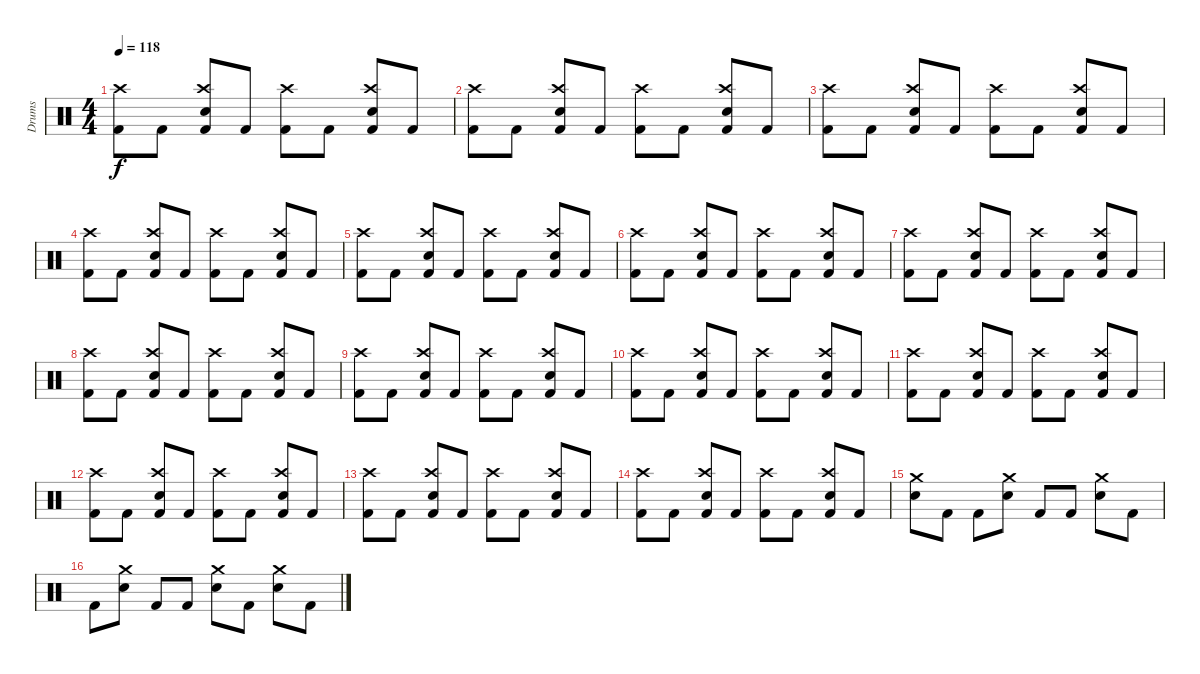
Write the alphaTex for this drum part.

\track ("Drums" "Drums") {instrument percussion}
\staff {score}
\articulation defaults
\ts (4 4)
\tempo 118
\clef neutral
\ks c
("Kick (hit) 2" "Crash high (hit)").8{dy f} "Kick (hit) 2".8 ("Kick (hit) 2" "Snare (hit) 2" "Crash high (hit)").8 "Kick (hit) 2".8 ("Kick (hit) 2" "Crash high (hit)").8 "Kick (hit) 2".8 ("Kick (hit) 2" "Snare (hit) 2" "Crash high (hit)").8 "Kick (hit) 2".8 |
("Kick (hit) 2" "Crash high (hit)").8 "Kick (hit) 2".8 ("Kick (hit) 2" "Snare (hit) 2" "Crash high (hit)").8 "Kick (hit) 2".8 ("Kick (hit) 2" "Crash high (hit)").8 "Kick (hit) 2".8 ("Kick (hit) 2" "Snare (hit) 2" "Crash high (hit)").8 "Kick (hit) 2".8 |
("Kick (hit) 2" "Crash high (hit)").8 "Kick (hit) 2".8 ("Kick (hit) 2" "Snare (hit) 2" "Crash high (hit)").8 "Kick (hit) 2".8 ("Kick (hit) 2" "Crash high (hit)").8 "Kick (hit) 2".8 ("Kick (hit) 2" "Snare (hit) 2" "Crash high (hit)").8 "Kick (hit) 2".8 |
("Kick (hit) 2" "Crash high (hit)").8 "Kick (hit) 2".8 ("Kick (hit) 2" "Snare (hit) 2" "Crash high (hit)").8 "Kick (hit) 2".8 ("Kick (hit) 2" "Crash high (hit)").8 "Kick (hit) 2".8 ("Kick (hit) 2" "Snare (hit) 2" "Crash high (hit)").8 "Kick (hit) 2".8 |
("Kick (hit) 2" "Crash high (hit)").8 "Kick (hit) 2".8 ("Kick (hit) 2" "Snare (hit) 2" "Crash high (hit)").8 "Kick (hit) 2".8 ("Kick (hit) 2" "Crash high (hit)").8 "Kick (hit) 2".8 ("Kick (hit) 2" "Snare (hit) 2" "Crash high (hit)").8 "Kick (hit) 2".8 |
("Kick (hit) 2" "Crash high (hit)").8 "Kick (hit) 2".8 ("Kick (hit) 2" "Snare (hit) 2" "Crash high (hit)").8 "Kick (hit) 2".8 ("Kick (hit) 2" "Crash high (hit)").8 "Kick (hit) 2".8 ("Kick (hit) 2" "Snare (hit) 2" "Crash high (hit)").8 "Kick (hit) 2".8 |
("Kick (hit) 2" "Crash high (hit)").8 "Kick (hit) 2".8 ("Kick (hit) 2" "Snare (hit) 2" "Crash high (hit)").8 "Kick (hit) 2".8 ("Kick (hit) 2" "Crash high (hit)").8 "Kick (hit) 2".8 ("Kick (hit) 2" "Snare (hit) 2" "Crash high (hit)").8 "Kick (hit) 2".8 |
("Kick (hit) 2" "Crash high (hit)").8 "Kick (hit) 2".8 ("Kick (hit) 2" "Snare (hit) 2" "Crash high (hit)").8 "Kick (hit) 2".8 ("Kick (hit) 2" "Crash high (hit)").8 "Kick (hit) 2".8 ("Kick (hit) 2" "Snare (hit) 2" "Crash high (hit)").8 "Kick (hit) 2".8 |
("Kick (hit) 2" "Crash high (hit)").8 "Kick (hit) 2".8 ("Kick (hit) 2" "Snare (hit) 2" "Crash high (hit)").8 "Kick (hit) 2".8 ("Kick (hit) 2" "Crash high (hit)").8 "Kick (hit) 2".8 ("Kick (hit) 2" "Snare (hit) 2" "Crash high (hit)").8 "Kick (hit) 2".8 |
("Kick (hit) 2" "Crash high (hit)").8 "Kick (hit) 2".8 ("Kick (hit) 2" "Snare (hit) 2" "Crash high (hit)").8 "Kick (hit) 2".8 ("Kick (hit) 2" "Crash high (hit)").8 "Kick (hit) 2".8 ("Kick (hit) 2" "Snare (hit) 2" "Crash high (hit)").8 "Kick (hit) 2".8 |
("Kick (hit) 2" "Crash high (hit)").8 "Kick (hit) 2".8 ("Kick (hit) 2" "Snare (hit) 2" "Crash high (hit)").8 "Kick (hit) 2".8 ("Kick (hit) 2" "Crash high (hit)").8 "Kick (hit) 2".8 ("Kick (hit) 2" "Snare (hit) 2" "Crash high (hit)").8 "Kick (hit) 2".8 |
("Kick (hit) 2" "Crash high (hit)").8 "Kick (hit) 2".8 ("Kick (hit) 2" "Snare (hit) 2" "Crash high (hit)").8 "Kick (hit) 2".8 ("Kick (hit) 2" "Crash high (hit)").8 "Kick (hit) 2".8 ("Kick (hit) 2" "Snare (hit) 2" "Crash high (hit)").8 "Kick (hit) 2".8 |
("Kick (hit) 2" "Crash high (hit)").8 "Kick (hit) 2".8 ("Kick (hit) 2" "Snare (hit) 2" "Crash high (hit)").8 "Kick (hit) 2".8 ("Kick (hit) 2" "Crash high (hit)").8 "Kick (hit) 2".8 ("Kick (hit) 2" "Snare (hit) 2" "Crash high (hit)").8 "Kick (hit) 2".8 |
("Kick (hit) 2" "Crash high (hit)").8 "Kick (hit) 2".8 ("Kick (hit) 2" "Snare (hit) 2" "Crash high (hit)").8 "Kick (hit) 2".8 ("Kick (hit) 2" "Crash high (hit)").8 "Kick (hit) 2".8 ("Kick (hit) 2" "Snare (hit) 2" "Crash high (hit)").8 "Kick (hit) 2".8 |
("Snare (hit) 2" "Crash medium (hit)").8 "Kick (hit) 2".8 "Kick (hit) 2".8 ("Snare (hit) 2" "Crash medium (hit)").8 "Kick (hit) 2".8 "Kick (hit) 2".8 ("Snare (hit) 2" "Crash medium (hit)").8 "Kick (hit) 2".8 |
"Kick (hit) 2".8 ("Snare (hit) 2" "Crash medium (hit)").8 "Kick (hit) 2".8 "Kick (hit) 2".8 ("Snare (hit) 2" "Crash medium (hit)").8 "Kick (hit) 2".8 ("Snare (hit) 2" "Crash medium (hit)").8 "Kick (hit) 2".8
